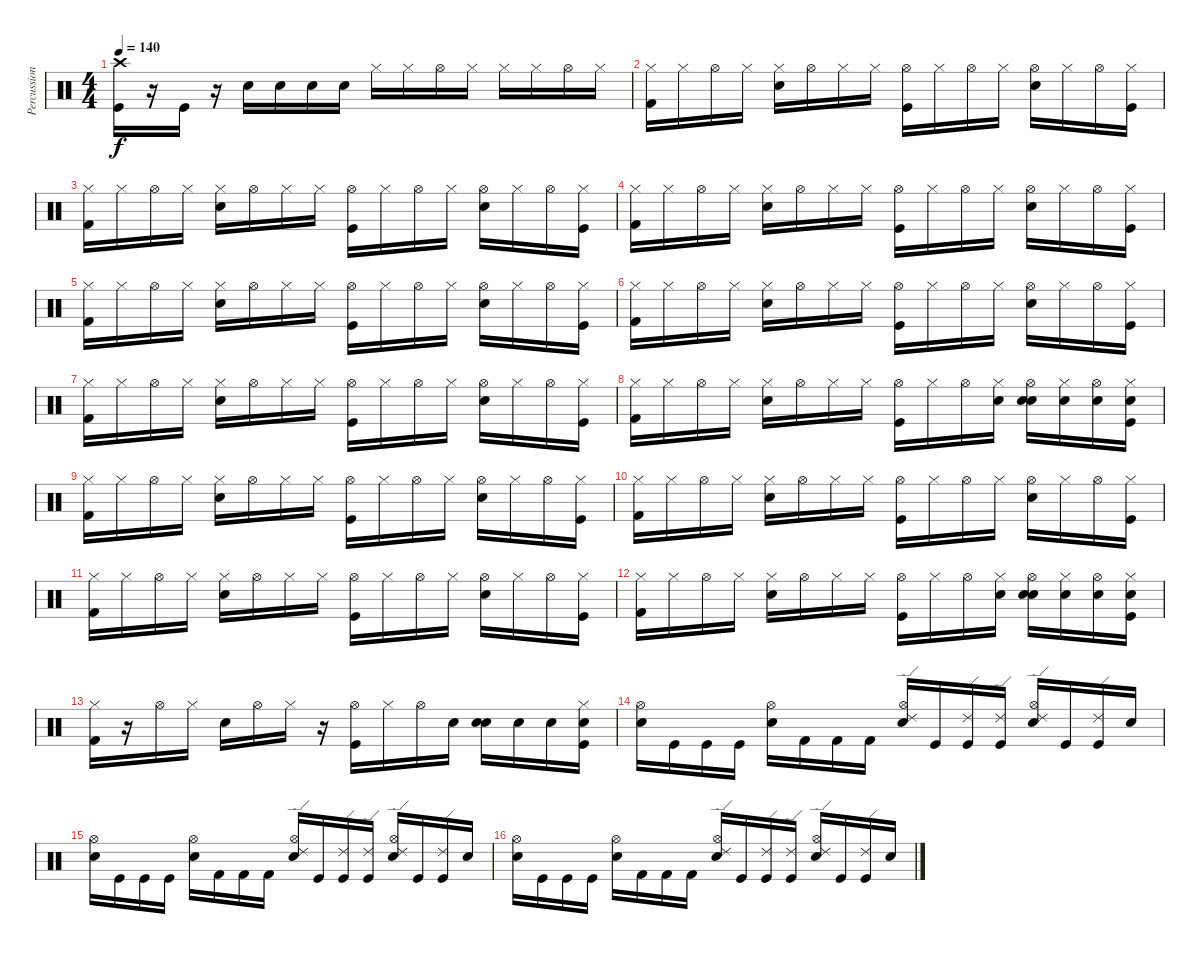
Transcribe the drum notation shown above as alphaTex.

\track ("Percussion" "Percussion") {instrument percussion}
\staff {score}
\articulation defaults
\ts (4 4)
\tempo 140
\clef neutral
\ks c
("Crash high (hit)" "Kick (hit)").16{dy f} r.16 "Kick (hit)".16 r.16 "Snare (hit) 2".16 "Snare (hit) 2".16 "Snare (hit) 2".16 "Snare (hit) 2".16 "Hi-Hat (closed)".16 "Hi-Hat (closed)".16 "Hi-Hat (open)".16 "Hi-Hat (closed)".16 "Hi-Hat (closed)".16 "Hi-Hat (closed)".16 "Hi-Hat (open)".16 "Hi-Hat (closed)".16 |
("Hi-Hat (closed)" "Kick (hit) 2").16 "Hi-Hat (closed)".16 "Hi-Hat (open)".16 "Hi-Hat (closed)".16 ("Hi-Hat (closed)" "Snare (hit) 2").16 "Hi-Hat (open)".16 "Hi-Hat (closed)".16 "Hi-Hat (closed)".16 ("Hi-Hat (open)" "Kick (hit)").16 "Hi-Hat (closed)".16 "Hi-Hat (open)".16 "Hi-Hat (closed)".16 ("Hi-Hat (open)" "Snare (hit) 2").16 "Hi-Hat (closed)".16 "Hi-Hat (open)".16 ("Hi-Hat (closed)" "Kick (hit)").16 |
("Hi-Hat (closed)" "Kick (hit) 2").16 "Hi-Hat (closed)".16 "Hi-Hat (open)".16 "Hi-Hat (closed)".16 ("Hi-Hat (closed)" "Snare (hit) 2").16 "Hi-Hat (open)".16 "Hi-Hat (closed)".16 "Hi-Hat (closed)".16 ("Hi-Hat (open)" "Kick (hit)").16 "Hi-Hat (closed)".16 "Hi-Hat (open)".16 "Hi-Hat (closed)".16 ("Hi-Hat (open)" "Snare (hit) 2").16 "Hi-Hat (closed)".16 "Hi-Hat (open)".16 ("Hi-Hat (closed)" "Kick (hit)").16 |
("Hi-Hat (closed)" "Kick (hit) 2").16 "Hi-Hat (closed)".16 "Hi-Hat (open)".16 "Hi-Hat (closed)".16 ("Hi-Hat (closed)" "Snare (hit) 2").16 "Hi-Hat (open)".16 "Hi-Hat (closed)".16 "Hi-Hat (closed)".16 ("Hi-Hat (open)" "Kick (hit)").16 "Hi-Hat (closed)".16 "Hi-Hat (open)".16 "Hi-Hat (closed)".16 ("Hi-Hat (open)" "Snare (hit) 2").16 "Hi-Hat (closed)".16 "Hi-Hat (open)".16 ("Hi-Hat (closed)" "Kick (hit)").16 |
("Hi-Hat (closed)" "Kick (hit) 2").16 "Hi-Hat (closed)".16 "Hi-Hat (open)".16 "Hi-Hat (closed)".16 ("Hi-Hat (closed)" "Snare (hit) 2").16 "Hi-Hat (open)".16 "Hi-Hat (closed)".16 "Hi-Hat (closed)".16 ("Hi-Hat (open)" "Kick (hit)").16 "Hi-Hat (closed)".16 "Hi-Hat (open)".16 "Hi-Hat (closed)".16 ("Hi-Hat (open)" "Snare (hit) 2").16 "Hi-Hat (closed)".16 "Hi-Hat (open)".16 ("Hi-Hat (closed)" "Kick (hit)").16 |
("Hi-Hat (closed)" "Kick (hit) 2").16 "Hi-Hat (closed)".16 "Hi-Hat (open)".16 "Hi-Hat (closed)".16 ("Hi-Hat (closed)" "Snare (hit) 2").16 "Hi-Hat (open)".16 "Hi-Hat (closed)".16 "Hi-Hat (closed)".16 ("Hi-Hat (open)" "Kick (hit)").16 "Hi-Hat (closed)".16 "Hi-Hat (open)".16 "Hi-Hat (closed)".16 ("Hi-Hat (open)" "Snare (hit) 2").16 "Hi-Hat (closed)".16 "Hi-Hat (open)".16 ("Hi-Hat (closed)" "Kick (hit)").16 |
("Hi-Hat (closed)" "Kick (hit) 2").16 "Hi-Hat (closed)".16 "Hi-Hat (open)".16 "Hi-Hat (closed)".16 ("Hi-Hat (closed)" "Snare (hit) 2").16 "Hi-Hat (open)".16 "Hi-Hat (closed)".16 "Hi-Hat (closed)".16 ("Hi-Hat (open)" "Kick (hit)").16 "Hi-Hat (closed)".16 "Hi-Hat (open)".16 "Hi-Hat (closed)".16 ("Hi-Hat (open)" "Snare (hit) 2").16 "Hi-Hat (closed)".16 "Hi-Hat (open)".16 ("Hi-Hat (closed)" "Kick (hit)").16 |
("Hi-Hat (closed)" "Kick (hit) 2").16 "Hi-Hat (closed)".16 "Hi-Hat (open)".16 "Hi-Hat (closed)".16 ("Hi-Hat (closed)" "Snare (hit) 2").16 "Hi-Hat (open)".16 "Hi-Hat (closed)".16 "Hi-Hat (closed)".16 ("Hi-Hat (open)" "Kick (hit)").16 "Hi-Hat (closed)".16 "Hi-Hat (open)".16 ("Hi-Hat (closed)" "Snare (hit) 2").16 ("Hi-Hat (open)" "Snare (hit) 2" "Snare (hit) 2").16 ("Hi-Hat (closed)" "Snare (hit) 2").16 ("Hi-Hat (open)" "Snare (hit) 2").16 ("Hi-Hat (closed)" "Snare (hit) 2" "Kick (hit)").16 |
("Hi-Hat (closed)" "Kick (hit) 2").16 "Hi-Hat (closed)".16 "Hi-Hat (open)".16 "Hi-Hat (closed)".16 ("Hi-Hat (closed)" "Snare (hit) 2").16 "Hi-Hat (open)".16 "Hi-Hat (closed)".16 "Hi-Hat (closed)".16 ("Hi-Hat (open)" "Kick (hit)").16 "Hi-Hat (closed)".16 "Hi-Hat (open)".16 "Hi-Hat (closed)".16 ("Hi-Hat (open)" "Snare (hit) 2").16 "Hi-Hat (closed)".16 "Hi-Hat (open)".16 ("Hi-Hat (closed)" "Kick (hit)").16 |
("Hi-Hat (closed)" "Kick (hit) 2").16 "Hi-Hat (closed)".16 "Hi-Hat (open)".16 "Hi-Hat (closed)".16 ("Hi-Hat (closed)" "Snare (hit) 2").16 "Hi-Hat (open)".16 "Hi-Hat (closed)".16 "Hi-Hat (closed)".16 ("Hi-Hat (open)" "Kick (hit)").16 "Hi-Hat (closed)".16 "Hi-Hat (open)".16 "Hi-Hat (closed)".16 ("Hi-Hat (open)" "Snare (hit) 2").16 "Hi-Hat (closed)".16 "Hi-Hat (open)".16 ("Hi-Hat (closed)" "Kick (hit)").16 |
("Hi-Hat (closed)" "Kick (hit) 2").16 "Hi-Hat (closed)".16 "Hi-Hat (open)".16 "Hi-Hat (closed)".16 ("Hi-Hat (closed)" "Snare (hit) 2").16 "Hi-Hat (open)".16 "Hi-Hat (closed)".16 "Hi-Hat (closed)".16 ("Hi-Hat (open)" "Kick (hit)").16 "Hi-Hat (closed)".16 "Hi-Hat (open)".16 "Hi-Hat (closed)".16 ("Hi-Hat (open)" "Snare (hit) 2").16 "Hi-Hat (closed)".16 "Hi-Hat (open)".16 ("Hi-Hat (closed)" "Kick (hit)").16 |
("Hi-Hat (closed)" "Kick (hit) 2").16 "Hi-Hat (closed)".16 "Hi-Hat (open)".16 "Hi-Hat (closed)".16 ("Hi-Hat (closed)" "Snare (hit) 2").16 "Hi-Hat (open)".16 "Hi-Hat (closed)".16 "Hi-Hat (closed)".16 ("Hi-Hat (open)" "Kick (hit)").16 "Hi-Hat (closed)".16 "Hi-Hat (open)".16 ("Hi-Hat (closed)" "Snare (hit) 2").16 ("Hi-Hat (open)" "Snare (hit) 2" "Snare (hit) 2").16 ("Hi-Hat (closed)" "Snare (hit) 2").16 ("Hi-Hat (open)" "Snare (hit) 2").16 ("Hi-Hat (closed)" "Snare (hit) 2" "Kick (hit)").16 |
("Hi-Hat (closed)" "Kick (hit) 2").16 r.16 "Hi-Hat (open)".16 "Hi-Hat (closed)".16 "Snare (hit) 2".16 "Hi-Hat (open)".16 "Hi-Hat (closed)".16 r.16 ("Hi-Hat (open)" "Kick (hit)").16 "Hi-Hat (closed)".16 "Hi-Hat (open)".16 "Snare (hit) 2".16 ("Snare (hit) 2" "Snare (hit) 2").16 "Snare (hit) 2".16 "Snare (hit) 2".16 ("Hi-Hat (closed)" "Snare (hit) 2" "Kick (hit)").16 |
("Hi-Hat (open)" "Snare (hit) 2").16 "Kick (hit)".16 "Kick (hit)".16 "Kick (hit)".16 ("Hi-Hat (open)" "Snare (hit) 2").16 "Kick (hit) 2".16 "Kick (hit) 2".16 "Kick (hit) 2".16 ("Hi-Hat (open)" "Snare (hit) 2" "Ride (edge) 2").16 "Kick (hit)".16 ("Kick (hit)" "Ride (edge) 2").16 ("Kick (hit)" "Ride (edge) 2").16 ("Hi-Hat (open)" "Snare (hit) 2" "Ride (edge) 2").16 "Kick (hit)".16 ("Kick (hit)" "Ride (edge) 2").16 "Snare (hit) 2".16 |
("Hi-Hat (open)" "Snare (hit) 2").16 "Kick (hit)".16 "Kick (hit)".16 "Kick (hit)".16 ("Hi-Hat (open)" "Snare (hit) 2").16 "Kick (hit) 2".16 "Kick (hit) 2".16 "Kick (hit) 2".16 ("Hi-Hat (open)" "Snare (hit) 2" "Ride (edge) 2").16 "Kick (hit)".16 ("Kick (hit)" "Ride (edge) 2").16 ("Kick (hit)" "Ride (edge) 2").16 ("Hi-Hat (open)" "Snare (hit) 2" "Ride (edge) 2").16 "Kick (hit)".16 ("Kick (hit)" "Ride (edge) 2").16 "Snare (hit) 2".16 |
("Hi-Hat (open)" "Snare (hit) 2").16 "Kick (hit)".16 "Kick (hit)".16 "Kick (hit)".16 ("Hi-Hat (open)" "Snare (hit) 2").16 "Kick (hit) 2".16 "Kick (hit) 2".16 "Kick (hit) 2".16 ("Hi-Hat (open)" "Snare (hit) 2" "Ride (edge) 2").16 "Kick (hit)".16 ("Kick (hit)" "Ride (edge) 2").16 ("Kick (hit)" "Ride (edge) 2").16 ("Hi-Hat (open)" "Snare (hit) 2" "Ride (edge) 2").16 "Kick (hit)".16 ("Kick (hit)" "Ride (edge) 2").16 "Snare (hit) 2".16
